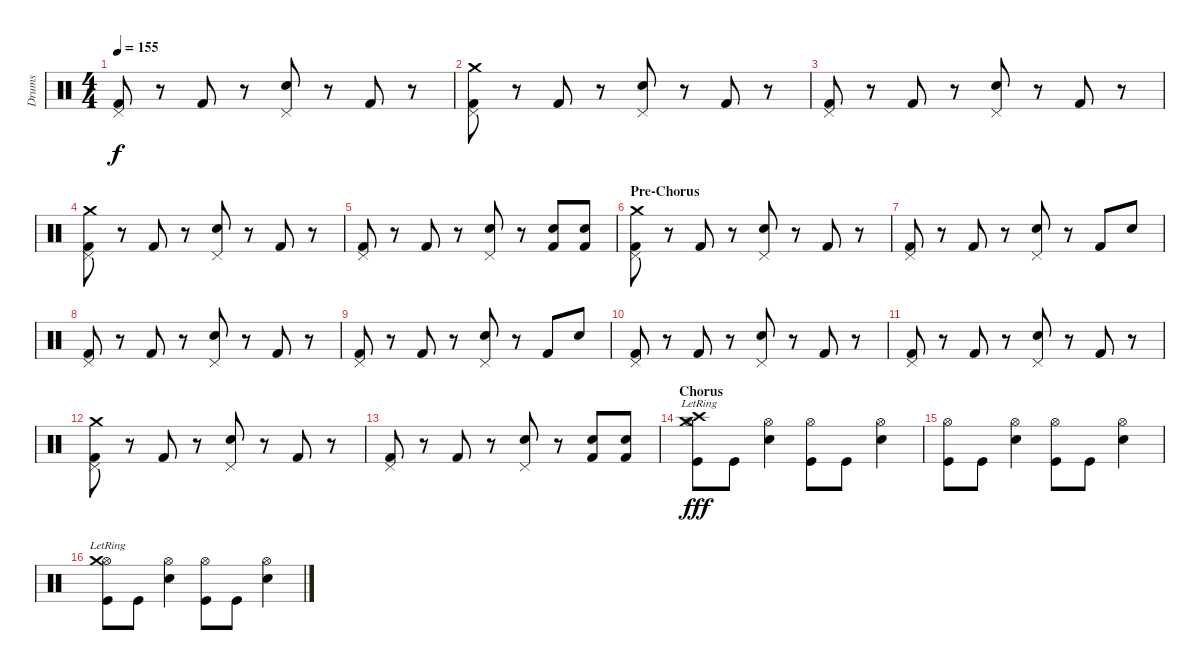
\track ("Drums" "Drums") {instrument percussion}
\staff {score}
\articulation defaults
\ts (4 4)
\tempo 155
\clef neutral
\ks c
("Pedal Hi-Hat (hit)" "Kick (hit) 2").8{dy f} r.8 "Kick (hit) 2".8 r.8 ("Pedal Hi-Hat (hit)" "Snare (hit) 2").8 r.8 "Kick (hit) 2".8 r.8 |
("Pedal Hi-Hat (hit)" "Crash medium (hit)" "Kick (hit) 2").8 r.8 "Kick (hit) 2".8 r.8 ("Pedal Hi-Hat (hit)" "Snare (hit) 2").8 r.8 "Kick (hit) 2".8 r.8 |
("Pedal Hi-Hat (hit)" "Kick (hit) 2").8 r.8 "Kick (hit) 2".8 r.8 ("Pedal Hi-Hat (hit)" "Snare (hit) 2").8 r.8 "Kick (hit) 2".8 r.8 |
("Pedal Hi-Hat (hit)" "Crash medium (hit)" "Kick (hit) 2").8 r.8 "Kick (hit) 2".8 r.8 ("Pedal Hi-Hat (hit)" "Snare (hit) 2").8 r.8 "Kick (hit) 2".8 r.8 |
("Pedal Hi-Hat (hit)" "Kick (hit) 2").8 r.8 "Kick (hit) 2".8 r.8 ("Pedal Hi-Hat (hit)" "Snare (hit) 2").8 r.8 ("Snare (hit) 2" "Kick (hit) 2").8 ("Snare (hit) 2" "Kick (hit) 2").8 |
\section ("" "Pre-Chorus")
("Pedal Hi-Hat (hit)" "Crash medium (hit)" "Kick (hit) 2").8 r.8 "Kick (hit) 2".8 r.8 ("Pedal Hi-Hat (hit)" "Snare (hit) 2").8 r.8 "Kick (hit) 2".8 r.8 |
("Pedal Hi-Hat (hit)" "Kick (hit) 2").8 r.8 "Kick (hit) 2".8 r.8 ("Pedal Hi-Hat (hit)" "Snare (hit) 2").8 r.8 "Kick (hit) 2".8 "Snare (hit) 2".8 |
("Pedal Hi-Hat (hit)" "Kick (hit) 2").8 r.8 "Kick (hit) 2".8 r.8 ("Pedal Hi-Hat (hit)" "Snare (hit) 2").8 r.8 "Kick (hit) 2".8 r.8 |
("Pedal Hi-Hat (hit)" "Kick (hit) 2").8 r.8 "Kick (hit) 2".8 r.8 ("Pedal Hi-Hat (hit)" "Snare (hit) 2").8 r.8 "Kick (hit) 2".8 "Snare (hit) 2".8 |
("Pedal Hi-Hat (hit)" "Kick (hit) 2").8 r.8 "Kick (hit) 2".8 r.8 ("Pedal Hi-Hat (hit)" "Snare (hit) 2").8 r.8 "Kick (hit) 2".8 r.8 |
("Pedal Hi-Hat (hit)" "Kick (hit) 2").8 r.8 "Kick (hit) 2".8 r.8 ("Pedal Hi-Hat (hit)" "Snare (hit) 2").8 r.8 "Kick (hit) 2".8 r.8 |
("Pedal Hi-Hat (hit)" "Crash medium (hit)" "Kick (hit) 2").8 r.8 "Kick (hit) 2".8 r.8 ("Pedal Hi-Hat (hit)" "Snare (hit) 2").8 r.8 "Kick (hit) 2".8 r.8 |
("Pedal Hi-Hat (hit)" "Kick (hit) 2").8 r.8 "Kick (hit) 2".8 r.8 ("Pedal Hi-Hat (hit)" "Snare (hit) 2").8 r.8 ("Snare (hit) 2" "Kick (hit) 2").8 ("Snare (hit) 2" "Kick (hit) 2").8 |
\section ("" "Chorus")
("Crash high (hit)"{lr} "Hi-Hat (open)" "Crash medium (hit)"{lr} "Kick (hit)").8{dy fff} "Kick (hit)".8 ("Hi-Hat (open)" "Snare (hit) 2").4 ("Hi-Hat (open)" "Kick (hit)").8 "Kick (hit)".8 ("Hi-Hat (open)" "Snare (hit) 2").4 |
("Hi-Hat (open)" "Kick (hit)").8 "Kick (hit)".8 ("Hi-Hat (open)" "Snare (hit) 2").4 ("Hi-Hat (open)" "Kick (hit)").8 "Kick (hit)".8 ("Hi-Hat (open)" "Snare (hit) 2").4 |
("Hi-Hat (open)" "Crash medium (hit)"{lr} "Kick (hit)").8 "Kick (hit)".8 ("Hi-Hat (open)" "Snare (hit) 2").4 ("Hi-Hat (open)" "Kick (hit)").8 "Kick (hit)".8 ("Hi-Hat (open)" "Snare (hit) 2").4
